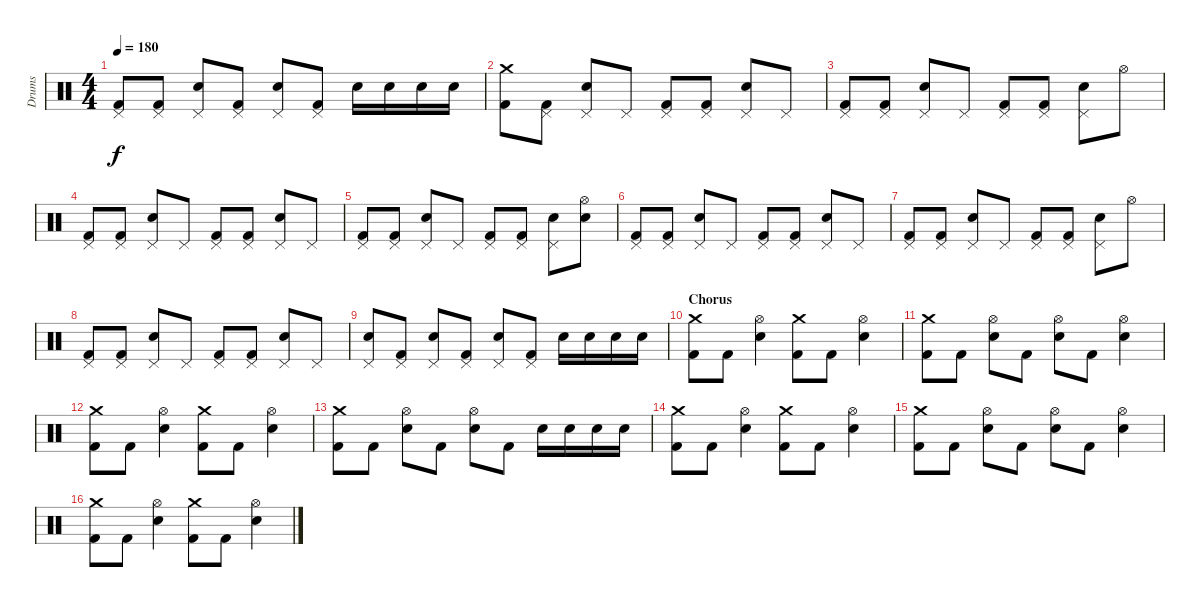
\track ("Drums" "Drums") {instrument percussion}
\staff {score}
\articulation defaults
\ts (4 4)
\tempo 180
\clef neutral
\ks c
("Pedal Hi-Hat (hit)" "Kick (hit) 2").8{dy f} ("Pedal Hi-Hat (hit)" "Kick (hit) 2").8 ("Pedal Hi-Hat (hit)" "Electric Snare (hit)").8 ("Pedal Hi-Hat (hit)" "Kick (hit) 2").8 ("Pedal Hi-Hat (hit)" "Electric Snare (hit)").8 ("Pedal Hi-Hat (hit)" "Kick (hit) 2").8 "Electric Snare (hit)".16 "Electric Snare (hit)".16 "Electric Snare (hit)".16 "Electric Snare (hit)".16 |
("Crash medium (hit)" "Kick (hit) 2").8 ("Pedal Hi-Hat (hit)" "Kick (hit) 2").8 ("Pedal Hi-Hat (hit)" "Electric Snare (hit)").8 "Pedal Hi-Hat (hit)".8 ("Pedal Hi-Hat (hit)" "Kick (hit) 2").8 ("Pedal Hi-Hat (hit)" "Kick (hit) 2").8 ("Pedal Hi-Hat (hit)" "Electric Snare (hit)").8 "Pedal Hi-Hat (hit)".8 |
("Pedal Hi-Hat (hit)" "Kick (hit) 2").8 ("Pedal Hi-Hat (hit)" "Kick (hit) 2").8 ("Pedal Hi-Hat (hit)" "Electric Snare (hit)").8 "Pedal Hi-Hat (hit)".8 ("Pedal Hi-Hat (hit)" "Kick (hit) 2").8 ("Pedal Hi-Hat (hit)" "Kick (hit) 2").8 ("Pedal Hi-Hat (hit)" "Electric Snare (hit)").8 "Hi-Hat (open)".8 |
("Pedal Hi-Hat (hit)" "Kick (hit) 2").8 ("Pedal Hi-Hat (hit)" "Kick (hit) 2").8 ("Pedal Hi-Hat (hit)" "Electric Snare (hit)").8 "Pedal Hi-Hat (hit)".8 ("Pedal Hi-Hat (hit)" "Kick (hit) 2").8 ("Pedal Hi-Hat (hit)" "Kick (hit) 2").8 ("Pedal Hi-Hat (hit)" "Electric Snare (hit)").8 "Pedal Hi-Hat (hit)".8 |
("Pedal Hi-Hat (hit)" "Kick (hit) 2").8 ("Pedal Hi-Hat (hit)" "Kick (hit) 2").8 ("Pedal Hi-Hat (hit)" "Electric Snare (hit)").8 "Pedal Hi-Hat (hit)".8 ("Pedal Hi-Hat (hit)" "Kick (hit) 2").8 ("Pedal Hi-Hat (hit)" "Kick (hit) 2").8 ("Pedal Hi-Hat (hit)" "Electric Snare (hit)").8 ("Hi-Hat (open)" "Electric Snare (hit)").8 |
("Pedal Hi-Hat (hit)" "Kick (hit) 2").8 ("Pedal Hi-Hat (hit)" "Kick (hit) 2").8 ("Pedal Hi-Hat (hit)" "Electric Snare (hit)").8 "Pedal Hi-Hat (hit)".8 ("Pedal Hi-Hat (hit)" "Kick (hit) 2").8 ("Pedal Hi-Hat (hit)" "Kick (hit) 2").8 ("Pedal Hi-Hat (hit)" "Electric Snare (hit)").8 "Pedal Hi-Hat (hit)".8 |
("Pedal Hi-Hat (hit)" "Kick (hit) 2").8 ("Pedal Hi-Hat (hit)" "Kick (hit) 2").8 ("Pedal Hi-Hat (hit)" "Electric Snare (hit)").8 "Pedal Hi-Hat (hit)".8 ("Pedal Hi-Hat (hit)" "Kick (hit) 2").8 ("Pedal Hi-Hat (hit)" "Kick (hit) 2").8 ("Pedal Hi-Hat (hit)" "Electric Snare (hit)").8 "Hi-Hat (open)".8 |
("Pedal Hi-Hat (hit)" "Kick (hit) 2").8 ("Pedal Hi-Hat (hit)" "Kick (hit) 2").8 ("Pedal Hi-Hat (hit)" "Electric Snare (hit)").8 "Pedal Hi-Hat (hit)".8 ("Pedal Hi-Hat (hit)" "Kick (hit) 2").8 ("Pedal Hi-Hat (hit)" "Kick (hit) 2").8 ("Pedal Hi-Hat (hit)" "Electric Snare (hit)").8 "Pedal Hi-Hat (hit)".8 |
("Pedal Hi-Hat (hit)" "Electric Snare (hit)").8 ("Pedal Hi-Hat (hit)" "Kick (hit) 2").8 ("Pedal Hi-Hat (hit)" "Electric Snare (hit)").8 ("Pedal Hi-Hat (hit)" "Kick (hit) 2").8 ("Pedal Hi-Hat (hit)" "Electric Snare (hit)").8 ("Pedal Hi-Hat (hit)" "Kick (hit) 2").8 "Electric Snare (hit)".16 "Electric Snare (hit)".16 "Electric Snare (hit)".16 "Electric Snare (hit)".16 |
\section ("" "Chorus")
("Kick (hit) 2" "Crash medium (hit)").8 "Kick (hit) 2".8 ("Electric Snare (hit)" "Hi-Hat (open)").4 ("Kick (hit) 2" "Crash medium (hit)").8 "Kick (hit) 2".8 ("Electric Snare (hit)" "Hi-Hat (open)").4 |
("Kick (hit) 2" "Crash medium (hit)").8 "Kick (hit) 2".8 ("Electric Snare (hit)" "Hi-Hat (open)").8 "Kick (hit) 2".8 ("Electric Snare (hit)" "Hi-Hat (open)").8 "Kick (hit) 2".8 ("Electric Snare (hit)" "Hi-Hat (open)").4 |
("Kick (hit) 2" "Crash medium (hit)").8 "Kick (hit) 2".8 ("Electric Snare (hit)" "Hi-Hat (open)").4 ("Kick (hit) 2" "Crash medium (hit)").8 "Kick (hit) 2".8 ("Electric Snare (hit)" "Hi-Hat (open)").4 |
("Kick (hit) 2" "Crash medium (hit)").8 "Kick (hit) 2".8 ("Electric Snare (hit)" "Hi-Hat (open)").8 "Kick (hit) 2".8 ("Electric Snare (hit)" "Hi-Hat (open)").8 "Kick (hit) 2".8 "Electric Snare (hit)".16 "Electric Snare (hit)".16 "Electric Snare (hit)".16 "Electric Snare (hit)".16 |
("Kick (hit) 2" "Crash medium (hit)").8 "Kick (hit) 2".8 ("Electric Snare (hit)" "Hi-Hat (open)").4 ("Kick (hit) 2" "Crash medium (hit)").8 "Kick (hit) 2".8 ("Electric Snare (hit)" "Hi-Hat (open)").4 |
("Kick (hit) 2" "Crash medium (hit)").8 "Kick (hit) 2".8 ("Electric Snare (hit)" "Hi-Hat (open)").8 "Kick (hit) 2".8 ("Electric Snare (hit)" "Hi-Hat (open)").8 "Kick (hit) 2".8 ("Electric Snare (hit)" "Hi-Hat (open)").4 |
("Kick (hit) 2" "Crash medium (hit)").8 "Kick (hit) 2".8 ("Electric Snare (hit)" "Hi-Hat (open)").4 ("Kick (hit) 2" "Crash medium (hit)").8 "Kick (hit) 2".8 ("Electric Snare (hit)" "Hi-Hat (open)").4
